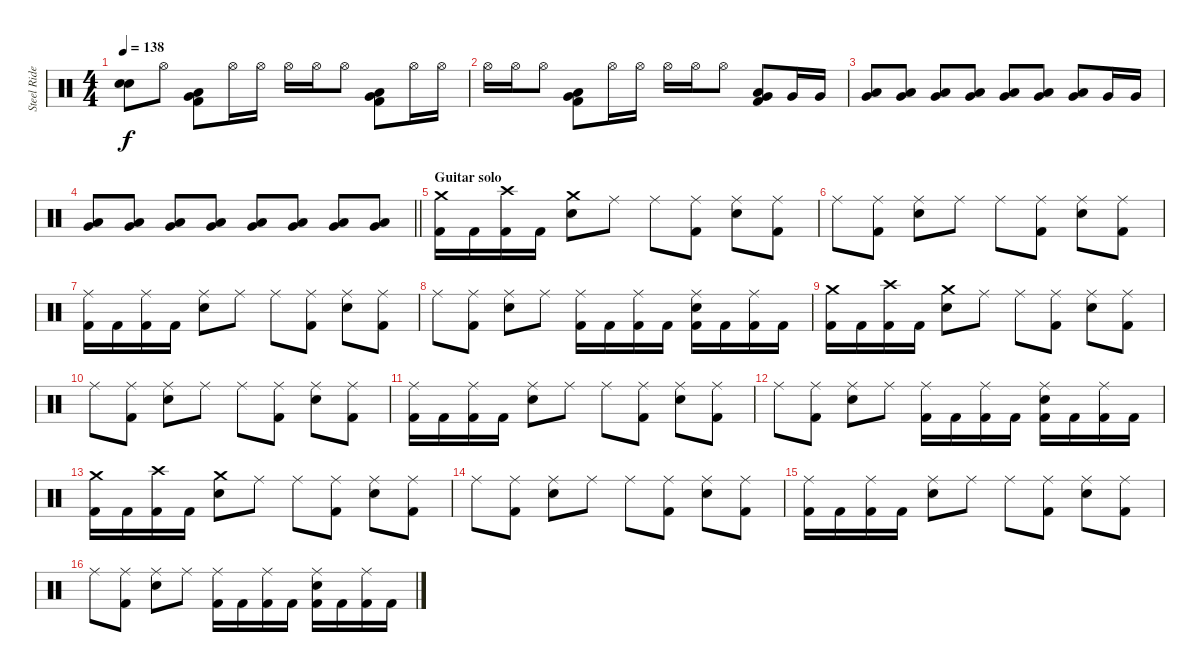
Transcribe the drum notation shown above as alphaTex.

\track ("Steel Rider" "Steel Ride") {instrument percussion}
\staff {score}
\articulation defaults
\ts (4 4)
\tempo 138
\clef neutral
\ks c
("Snare (hit)"{t} "Snare (hit)"{t}).8{dy f} "Hi-Hat (open)".8 ("Low Floor Tom (hit)" "Very Low Tom (hit)" "Kick (hit) 2").8 "Hi-Hat (open)".16 "Hi-Hat (open)".16 "Hi-Hat (open)".16 "Hi-Hat (open)".16 "Hi-Hat (open)".8 ("Low Floor Tom (hit)" "Very Low Tom (hit)" "Kick (hit) 2").8 "Hi-Hat (open)".16 "Hi-Hat (open)".16 |
"Hi-Hat (open)".16 "Hi-Hat (open)".16 "Hi-Hat (open)".8 ("Low Floor Tom (hit)" "Very Low Tom (hit)" "Kick (hit) 2").8 "Hi-Hat (open)".16 "Hi-Hat (open)".16 "Hi-Hat (open)".16 "Hi-Hat (open)".16 "Hi-Hat (open)".8 ("Low Floor Tom (hit)" "Very Low Tom (hit)" "Kick (hit) 2").8 "Very Low Tom (hit)".16 "Very Low Tom (hit)".16 |
("Very Low Tom (hit)" "Low Floor Tom (hit)").8 ("Very Low Tom (hit)" "Low Floor Tom (hit)").8 ("Very Low Tom (hit)" "Low Floor Tom (hit)").8 ("Very Low Tom (hit)" "Low Floor Tom (hit)").8 ("Very Low Tom (hit)" "Low Floor Tom (hit)").8 ("Very Low Tom (hit)" "Low Floor Tom (hit)").8 ("Very Low Tom (hit)" "Low Floor Tom (hit)").8 "Very Low Tom (hit)".16 "Very Low Tom (hit)".16 |
\barLineRight lightlight
("Very Low Tom (hit)" "Low Floor Tom (hit)").8 ("Very Low Tom (hit)" "Low Floor Tom (hit)").8 ("Very Low Tom (hit)" "Low Floor Tom (hit)").8 ("Very Low Tom (hit)" "Low Floor Tom (hit)").8 ("Very Low Tom (hit)" "Low Floor Tom (hit)").8 ("Very Low Tom (hit)" "Low Floor Tom (hit)").8 ("Very Low Tom (hit)" "Low Floor Tom (hit)").8 ("Very Low Tom (hit)" "Low Floor Tom (hit)").8 |
\section ("" "Guitar solo")
("Crash medium (hit)" "Kick (hit) 2").16 "Kick (hit) 2".16 ("Crash high (hit)" "Kick (hit) 2").16 "Kick (hit) 2".16 ("Crash medium (hit)" "Electric Snare (hit)").8 "Ride (middle)".8 "Ride (middle)".8 ("Ride (middle)" "Kick (hit) 2").8 ("Ride (middle)" "Electric Snare (hit)").8 ("Ride (middle)" "Kick (hit) 2").8 |
"Ride (middle)".8 ("Ride (middle)" "Kick (hit) 2").8 ("Ride (middle)" "Electric Snare (hit)").8 "Ride (middle)".8 "Ride (middle)".8 ("Ride (middle)" "Kick (hit) 2").8 ("Ride (middle)" "Electric Snare (hit)").8 ("Ride (middle)" "Kick (hit) 2").8 |
("Ride (middle)" "Kick (hit) 2").16 "Kick (hit) 2".16 ("Ride (middle)" "Kick (hit) 2").16 "Kick (hit) 2".16 ("Ride (middle)" "Electric Snare (hit)").8 "Ride (middle)".8 "Ride (middle)".8 ("Ride (middle)" "Kick (hit) 2").8 ("Ride (middle)" "Electric Snare (hit)").8 ("Ride (middle)" "Kick (hit) 2").8 |
"Ride (middle)".8 ("Ride (middle)" "Kick (hit) 2").8 ("Ride (middle)" "Electric Snare (hit)").8 "Ride (middle)".8 ("Ride (middle)" "Kick (hit) 2").16 "Kick (hit) 2".16 ("Ride (middle)" "Kick (hit) 2").16 "Kick (hit) 2".16 ("Ride (middle)" "Electric Snare (hit)" "Kick (hit) 2").16 "Kick (hit) 2".16 ("Ride (middle)" "Kick (hit) 2").16 "Kick (hit) 2".16 |
("Crash medium (hit)" "Kick (hit) 2").16 "Kick (hit) 2".16 ("Crash high (hit)" "Kick (hit) 2").16 "Kick (hit) 2".16 ("Crash medium (hit)" "Electric Snare (hit)").8 "Ride (middle)".8 "Ride (middle)".8 ("Ride (middle)" "Kick (hit) 2").8 ("Ride (middle)" "Electric Snare (hit)").8 ("Ride (middle)" "Kick (hit) 2").8 |
"Ride (middle)".8 ("Ride (middle)" "Kick (hit) 2").8 ("Ride (middle)" "Electric Snare (hit)").8 "Ride (middle)".8 "Ride (middle)".8 ("Ride (middle)" "Kick (hit) 2").8 ("Ride (middle)" "Electric Snare (hit)").8 ("Ride (middle)" "Kick (hit) 2").8 |
("Ride (middle)" "Kick (hit) 2").16 "Kick (hit) 2".16 ("Ride (middle)" "Kick (hit) 2").16 "Kick (hit) 2".16 ("Ride (middle)" "Electric Snare (hit)").8 "Ride (middle)".8 "Ride (middle)".8 ("Ride (middle)" "Kick (hit) 2").8 ("Ride (middle)" "Electric Snare (hit)").8 ("Ride (middle)" "Kick (hit) 2").8 |
"Ride (middle)".8 ("Ride (middle)" "Kick (hit) 2").8 ("Ride (middle)" "Electric Snare (hit)").8 "Ride (middle)".8 ("Ride (middle)" "Kick (hit) 2").16 "Kick (hit) 2".16 ("Ride (middle)" "Kick (hit) 2").16 "Kick (hit) 2".16 ("Ride (middle)" "Electric Snare (hit)" "Kick (hit) 2").16 "Kick (hit) 2".16 ("Ride (middle)" "Kick (hit) 2").16 "Kick (hit) 2".16 |
("Crash medium (hit)" "Kick (hit) 2").16 "Kick (hit) 2".16 ("Crash high (hit)" "Kick (hit) 2").16 "Kick (hit) 2".16 ("Crash medium (hit)" "Electric Snare (hit)").8 "Ride (middle)".8 "Ride (middle)".8 ("Ride (middle)" "Kick (hit) 2").8 ("Ride (middle)" "Electric Snare (hit)").8 ("Ride (middle)" "Kick (hit) 2").8 |
"Ride (middle)".8 ("Ride (middle)" "Kick (hit) 2").8 ("Ride (middle)" "Electric Snare (hit)").8 "Ride (middle)".8 "Ride (middle)".8 ("Ride (middle)" "Kick (hit) 2").8 ("Ride (middle)" "Electric Snare (hit)").8 ("Ride (middle)" "Kick (hit) 2").8 |
("Ride (middle)" "Kick (hit) 2").16 "Kick (hit) 2".16 ("Ride (middle)" "Kick (hit) 2").16 "Kick (hit) 2".16 ("Ride (middle)" "Electric Snare (hit)").8 "Ride (middle)".8 "Ride (middle)".8 ("Ride (middle)" "Kick (hit) 2").8 ("Ride (middle)" "Electric Snare (hit)").8 ("Ride (middle)" "Kick (hit) 2").8 |
"Ride (middle)".8 ("Ride (middle)" "Kick (hit) 2").8 ("Ride (middle)" "Electric Snare (hit)").8 "Ride (middle)".8 ("Ride (middle)" "Kick (hit) 2").16 "Kick (hit) 2".16 ("Ride (middle)" "Kick (hit) 2").16 "Kick (hit) 2".16 ("Ride (middle)" "Electric Snare (hit)" "Kick (hit) 2").16 "Kick (hit) 2".16 ("Ride (middle)" "Kick (hit) 2").16 "Kick (hit) 2".16
